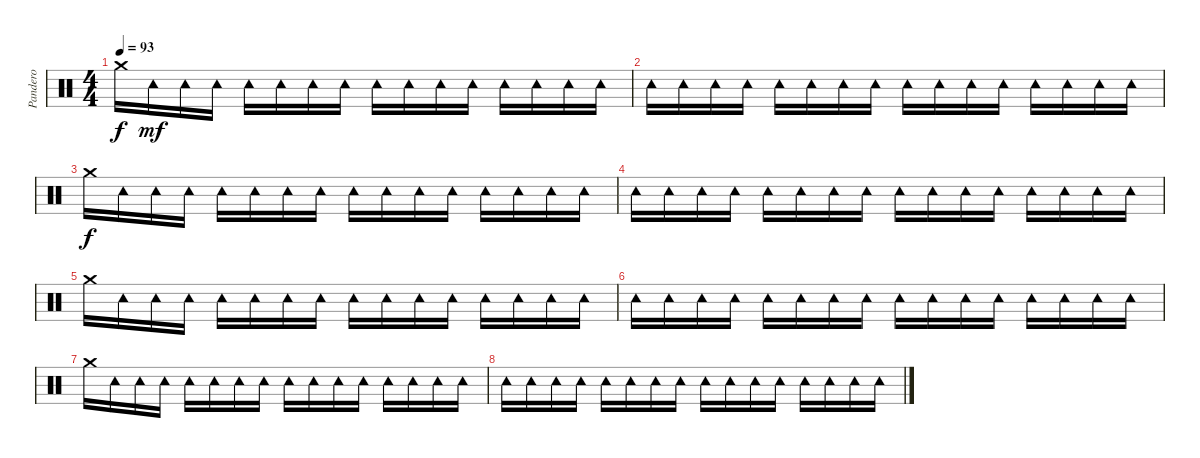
\track ("Pandero" "Pandero") {instrument percussion bank 1}
\staff {score}
\articulation defaults
\ts (4 4)
\tempo 93
\clef neutral
\ks c "Crash medium (hit)".16{dy f} "Tambourine (hit)".16{dy mf} "Tambourine (hit)".16 "Tambourine (hit)".16 "Tambourine (hit)".16 "Tambourine (hit)".16 "Tambourine (hit)".16 "Tambourine (hit)".16 "Tambourine (hit)".16 "Tambourine (hit)".16 "Tambourine (hit)".16 "Tambourine (hit)".16 "Tambourine (hit)".16 "Tambourine (hit)".16 "Tambourine (hit)".16 "Tambourine (hit)".16
|
"Tambourine (hit)".16 "Tambourine (hit)".16 "Tambourine (hit)".16 "Tambourine (hit)".16 "Tambourine (hit)".16 "Tambourine (hit)".16 "Tambourine (hit)".16 "Tambourine (hit)".16 "Tambourine (hit)".16 "Tambourine (hit)".16 "Tambourine (hit)".16 "Tambourine (hit)".16 "Tambourine (hit)".16 "Tambourine (hit)".16 "Tambourine (hit)".16 "Tambourine (hit)".16 |
"Crash medium (hit)".16{dy f} "Tambourine (hit)".16 "Tambourine (hit)".16 "Tambourine (hit)".16 "Tambourine (hit)".16 "Tambourine (hit)".16 "Tambourine (hit)".16 "Tambourine (hit)".16 "Tambourine (hit)".16 "Tambourine (hit)".16 "Tambourine (hit)".16 "Tambourine (hit)".16 "Tambourine (hit)".16 "Tambourine (hit)".16 "Tambourine (hit)".16 "Tambourine (hit)".16 |
"Tambourine (hit)".16 "Tambourine (hit)".16 "Tambourine (hit)".16 "Tambourine (hit)".16 "Tambourine (hit)".16 "Tambourine (hit)".16 "Tambourine (hit)".16 "Tambourine (hit)".16 "Tambourine (hit)".16 "Tambourine (hit)".16 "Tambourine (hit)".16 "Tambourine (hit)".16 "Tambourine (hit)".16 "Tambourine (hit)".16 "Tambourine (hit)".16 "Tambourine (hit)".16 |
"Crash medium (hit)".16 "Tambourine (hit)".16 "Tambourine (hit)".16 "Tambourine (hit)".16 "Tambourine (hit)".16 "Tambourine (hit)".16 "Tambourine (hit)".16 "Tambourine (hit)".16 "Tambourine (hit)".16 "Tambourine (hit)".16 "Tambourine (hit)".16 "Tambourine (hit)".16 "Tambourine (hit)".16 "Tambourine (hit)".16 "Tambourine (hit)".16 "Tambourine (hit)".16 |
"Tambourine (hit)".16 "Tambourine (hit)".16 "Tambourine (hit)".16 "Tambourine (hit)".16 "Tambourine (hit)".16 "Tambourine (hit)".16 "Tambourine (hit)".16 "Tambourine (hit)".16 "Tambourine (hit)".16 "Tambourine (hit)".16 "Tambourine (hit)".16 "Tambourine (hit)".16 "Tambourine (hit)".16 "Tambourine (hit)".16 "Tambourine (hit)".16 "Tambourine (hit)".16 |
"Crash medium (hit)".16 "Tambourine (hit)".16 "Tambourine (hit)".16 "Tambourine (hit)".16 "Tambourine (hit)".16 "Tambourine (hit)".16 "Tambourine (hit)".16 "Tambourine (hit)".16 "Tambourine (hit)".16 "Tambourine (hit)".16 "Tambourine (hit)".16 "Tambourine (hit)".16 "Tambourine (hit)".16 "Tambourine (hit)".16 "Tambourine (hit)".16 "Tambourine (hit)".16 |
"Tambourine (hit)".16 "Tambourine (hit)".16 "Tambourine (hit)".16 "Tambourine (hit)".16 "Tambourine (hit)".16 "Tambourine (hit)".16 "Tambourine (hit)".16 "Tambourine (hit)".16 "Tambourine (hit)".16 "Tambourine (hit)".16 "Tambourine (hit)".16 "Tambourine (hit)".16 "Tambourine (hit)".16 "Tambourine (hit)".16 "Tambourine (hit)".16 "Tambourine (hit)".16
